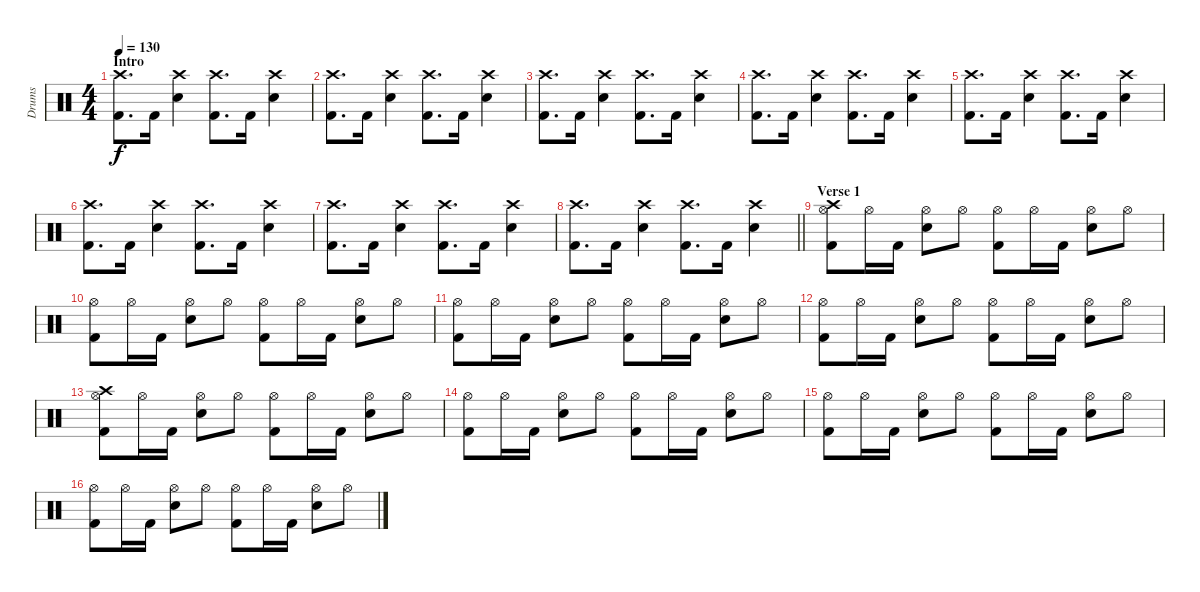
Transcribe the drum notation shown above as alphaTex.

\track ("Drums" "Drums") {instrument percussion}
\staff {score}
\articulation defaults
\ts (4 4)
\section ("" "Intro")
\tempo 130
\clef neutral
\ks c
("Crash high (hit)" "Kick (hit) 2").8{d dy f} "Kick (hit) 2".16 ("Crash high (hit)" "Snare (hit) 2").4 ("Crash high (hit)" "Kick (hit) 2").8{d} "Kick (hit) 2".16 ("Crash high (hit)" "Snare (hit) 2").4 |
("Crash high (hit)" "Kick (hit) 2").8{d} "Kick (hit) 2".16 ("Crash high (hit)" "Snare (hit) 2").4 ("Crash high (hit)" "Kick (hit) 2").8{d} "Kick (hit) 2".16 ("Crash high (hit)" "Snare (hit) 2").4 |
("Crash high (hit)" "Kick (hit) 2").8{d} "Kick (hit) 2".16 ("Crash high (hit)" "Snare (hit) 2").4 ("Crash high (hit)" "Kick (hit) 2").8{d} "Kick (hit) 2".16 ("Crash high (hit)" "Snare (hit) 2").4 |
("Crash high (hit)" "Kick (hit) 2").8{d} "Kick (hit) 2".16 ("Crash high (hit)" "Snare (hit) 2").4 ("Crash high (hit)" "Kick (hit) 2").8{d} "Kick (hit) 2".16 ("Crash high (hit)" "Snare (hit) 2").4 |
("Crash high (hit)" "Kick (hit) 2").8{d} "Kick (hit) 2".16 ("Crash high (hit)" "Snare (hit) 2").4 ("Crash high (hit)" "Kick (hit) 2").8{d} "Kick (hit) 2".16 ("Crash high (hit)" "Snare (hit) 2").4 |
("Crash high (hit)" "Kick (hit) 2").8{d} "Kick (hit) 2".16 ("Crash high (hit)" "Snare (hit) 2").4 ("Crash high (hit)" "Kick (hit) 2").8{d} "Kick (hit) 2".16 ("Crash high (hit)" "Snare (hit) 2").4 |
("Crash high (hit)" "Kick (hit) 2").8{d} "Kick (hit) 2".16 ("Crash high (hit)" "Snare (hit) 2").4 ("Crash high (hit)" "Kick (hit) 2").8{d} "Kick (hit) 2".16 ("Crash high (hit)" "Snare (hit) 2").4 |
\barLineRight lightlight
("Crash high (hit)" "Kick (hit) 2").8{d} "Kick (hit) 2".16 ("Crash high (hit)" "Snare (hit) 2").4 ("Crash high (hit)" "Kick (hit) 2").8{d} "Kick (hit) 2".16 ("Crash high (hit)" "Snare (hit) 2").4 |
\section ("" "Verse 1")
("Hi-Hat (open)" "Crash high (hit)" "Kick (hit) 2").8 "Hi-Hat (open)".16 "Kick (hit) 2".16 ("Hi-Hat (open)" "Snare (hit) 2").8 "Hi-Hat (open)".8 ("Hi-Hat (open)" "Kick (hit) 2").8 "Hi-Hat (open)".16 "Kick (hit) 2".16 ("Hi-Hat (open)" "Snare (hit) 2").8 "Hi-Hat (open)".8 |
("Hi-Hat (open)" "Kick (hit) 2").8 "Hi-Hat (open)".16 "Kick (hit) 2".16 ("Hi-Hat (open)" "Snare (hit) 2").8 "Hi-Hat (open)".8 ("Hi-Hat (open)" "Kick (hit) 2").8 "Hi-Hat (open)".16 "Kick (hit) 2".16 ("Hi-Hat (open)" "Snare (hit) 2").8 "Hi-Hat (open)".8 |
("Hi-Hat (open)" "Kick (hit) 2").8 "Hi-Hat (open)".16 "Kick (hit) 2".16 ("Hi-Hat (open)" "Snare (hit) 2").8 "Hi-Hat (open)".8 ("Hi-Hat (open)" "Kick (hit) 2").8 "Hi-Hat (open)".16 "Kick (hit) 2".16 ("Hi-Hat (open)" "Snare (hit) 2").8 "Hi-Hat (open)".8 |
("Hi-Hat (open)" "Kick (hit) 2").8 "Hi-Hat (open)".16 "Kick (hit) 2".16 ("Hi-Hat (open)" "Snare (hit) 2").8 "Hi-Hat (open)".8 ("Hi-Hat (open)" "Kick (hit) 2").8 "Hi-Hat (open)".16 "Kick (hit) 2".16 ("Hi-Hat (open)" "Snare (hit) 2").8 "Hi-Hat (open)".8 |
("Hi-Hat (open)" "Crash high (hit)" "Kick (hit) 2").8 "Hi-Hat (open)".16 "Kick (hit) 2".16 ("Hi-Hat (open)" "Snare (hit) 2").8 "Hi-Hat (open)".8 ("Hi-Hat (open)" "Kick (hit) 2").8 "Hi-Hat (open)".16 "Kick (hit) 2".16 ("Hi-Hat (open)" "Snare (hit) 2").8 "Hi-Hat (open)".8 |
("Hi-Hat (open)" "Kick (hit) 2").8 "Hi-Hat (open)".16 "Kick (hit) 2".16 ("Hi-Hat (open)" "Snare (hit) 2").8 "Hi-Hat (open)".8 ("Hi-Hat (open)" "Kick (hit) 2").8 "Hi-Hat (open)".16 "Kick (hit) 2".16 ("Hi-Hat (open)" "Snare (hit) 2").8 "Hi-Hat (open)".8 |
("Hi-Hat (open)" "Kick (hit) 2").8 "Hi-Hat (open)".16 "Kick (hit) 2".16 ("Hi-Hat (open)" "Snare (hit) 2").8 "Hi-Hat (open)".8 ("Hi-Hat (open)" "Kick (hit) 2").8 "Hi-Hat (open)".16 "Kick (hit) 2".16 ("Hi-Hat (open)" "Snare (hit) 2").8 "Hi-Hat (open)".8 |
("Hi-Hat (open)" "Kick (hit) 2").8 "Hi-Hat (open)".16 "Kick (hit) 2".16 ("Hi-Hat (open)" "Snare (hit) 2").8 "Hi-Hat (open)".8 ("Hi-Hat (open)" "Kick (hit) 2").8 "Hi-Hat (open)".16 "Kick (hit) 2".16 ("Hi-Hat (open)" "Snare (hit) 2").8 "Hi-Hat (open)".8
